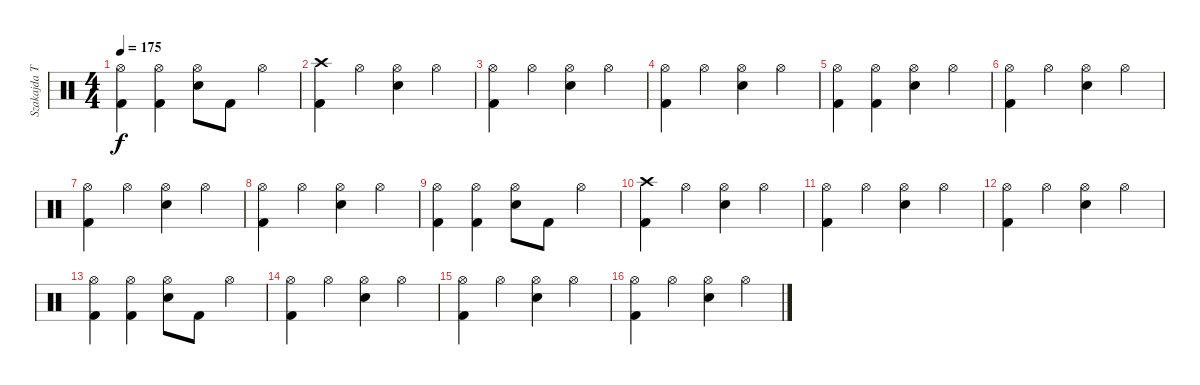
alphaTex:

\track ("Szakajda Tibi" "Szakajda T") {instrument percussion}
\staff {score}
\articulation defaults
\ts (4 4)
\tempo 175
\clef neutral
\ks c
("Hi-Hat (open)" "Kick (hit) 2").4{dy f} ("Hi-Hat (open)" "Kick (hit) 2").4 ("Hi-Hat (open)" "Snare (hit) 2").8 "Kick (hit) 2".8 "Hi-Hat (open)".4 |
("Crash high (hit)" "Kick (hit) 2").4 "Hi-Hat (open)".4 ("Hi-Hat (open)" "Snare (hit) 2").4 "Hi-Hat (open)".4 |
("Hi-Hat (open)" "Kick (hit) 2").4 "Hi-Hat (open)".4 ("Hi-Hat (open)" "Snare (hit) 2").4 "Hi-Hat (open)".4 |
("Hi-Hat (open)" "Kick (hit) 2").4 "Hi-Hat (open)".4 ("Hi-Hat (open)" "Snare (hit) 2").4 "Hi-Hat (open)".4 |
("Hi-Hat (open)" "Kick (hit) 2").4 ("Hi-Hat (open)" "Kick (hit) 2").4 ("Hi-Hat (open)" "Snare (hit) 2").4 "Hi-Hat (open)".4 |
("Hi-Hat (open)" "Kick (hit) 2").4 "Hi-Hat (open)".4 ("Hi-Hat (open)" "Snare (hit) 2").4 "Hi-Hat (open)".4 |
("Hi-Hat (open)" "Kick (hit) 2").4 "Hi-Hat (open)".4 ("Hi-Hat (open)" "Snare (hit) 2").4 "Hi-Hat (open)".4 |
("Hi-Hat (open)" "Kick (hit) 2").4 "Hi-Hat (open)".4 ("Hi-Hat (open)" "Snare (hit) 2").4 "Hi-Hat (open)".4 |
("Hi-Hat (open)" "Kick (hit) 2").4 ("Hi-Hat (open)" "Kick (hit) 2").4 ("Hi-Hat (open)" "Snare (hit) 2").8 "Kick (hit) 2".8 "Hi-Hat (open)".4 |
("Crash high (hit)" "Kick (hit) 2").4 "Hi-Hat (open)".4 ("Hi-Hat (open)" "Snare (hit) 2").4 "Hi-Hat (open)".4 |
("Hi-Hat (open)" "Kick (hit) 2").4 "Hi-Hat (open)".4 ("Hi-Hat (open)" "Snare (hit) 2").4 "Hi-Hat (open)".4 |
("Hi-Hat (open)" "Kick (hit) 2").4 "Hi-Hat (open)".4 ("Hi-Hat (open)" "Snare (hit) 2").4 "Hi-Hat (open)".4 |
("Hi-Hat (open)" "Kick (hit) 2").4 ("Hi-Hat (open)" "Kick (hit) 2").4 ("Hi-Hat (open)" "Snare (hit) 2").8 "Kick (hit) 2".8 "Hi-Hat (open)".4 |
("Hi-Hat (open)" "Kick (hit) 2").4 "Hi-Hat (open)".4 ("Hi-Hat (open)" "Snare (hit) 2").4 "Hi-Hat (open)".4 |
("Hi-Hat (open)" "Kick (hit) 2").4 "Hi-Hat (open)".4 ("Hi-Hat (open)" "Snare (hit) 2").4 "Hi-Hat (open)".4 |
("Hi-Hat (open)" "Kick (hit) 2").4 "Hi-Hat (open)".4 ("Hi-Hat (open)" "Snare (hit) 2").4 "Hi-Hat (open)".4
